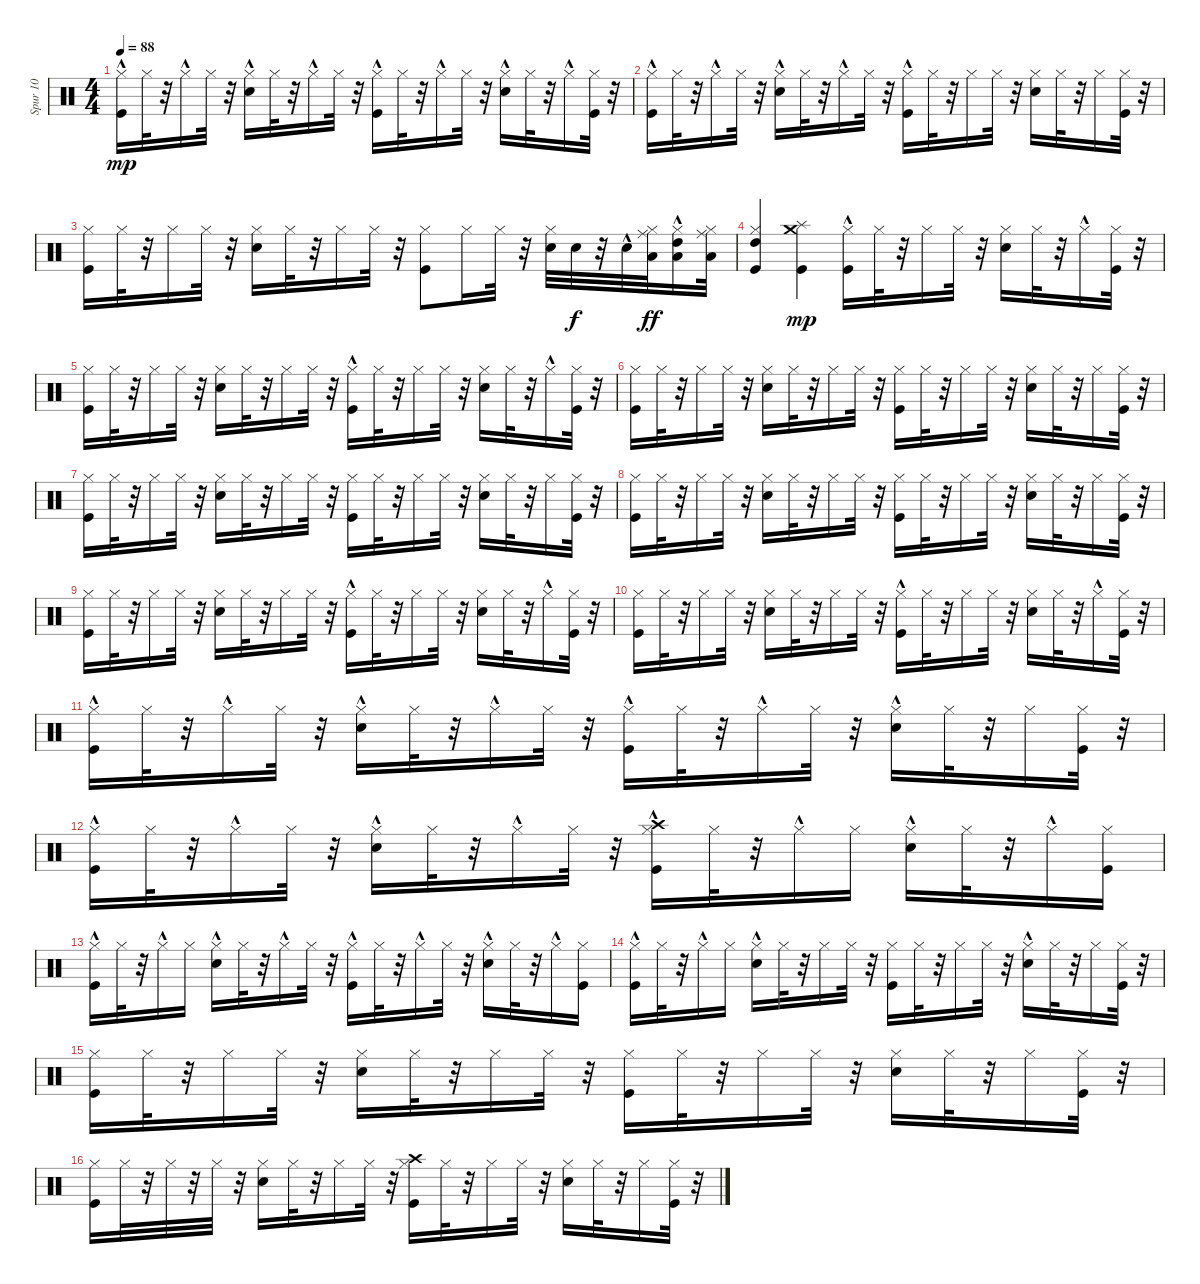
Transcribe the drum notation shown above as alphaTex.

\track ("Spur 10" "Spur 10") {instrument percussion}
\staff {score}
\articulation defaults
\ts (4 4)
\tempo 88
\clef neutral
\ks c
("Kick (hit)" "Hi-Hat (closed)"{hac}).16{dy mp} "Hi-Hat (closed)".32 r.32 "Hi-Hat (closed)"{hac}.16 "Hi-Hat (closed)".32 r.32 ("Snare (hit) 2" "Hi-Hat (closed)"{hac}).16 "Hi-Hat (closed)".32 r.32 "Hi-Hat (closed)"{hac}.16 "Hi-Hat (closed)".32 r.32 ("Kick (hit)"{hac} "Hi-Hat (closed)"{hac}).16 "Hi-Hat (closed)".32 r.32 "Hi-Hat (closed)"{hac}.16 "Hi-Hat (closed)".32 r.32 ("Snare (hit) 2" "Hi-Hat (closed)"{hac}).16 "Hi-Hat (closed)".32 r.32 "Hi-Hat (closed)"{hac}.16 ("Kick (hit)" "Hi-Hat (closed)").32 r.32 |
("Kick (hit)" "Hi-Hat (closed)"{hac}).16 "Hi-Hat (closed)".32 r.32 "Hi-Hat (closed)"{hac}.16 "Hi-Hat (closed)".32 r.32 ("Snare (hit) 2" "Hi-Hat (closed)"{hac}).16 "Hi-Hat (closed)".32 r.32 "Hi-Hat (closed)"{hac}.16 "Hi-Hat (closed)".32 r.32 ("Kick (hit)" "Hi-Hat (closed)"{hac}).16 "Hi-Hat (closed)".32 r.32 "Hi-Hat (closed)".16 "Hi-Hat (closed)".32 r.32 ("Snare (hit) 2" "Hi-Hat (closed)").16 "Hi-Hat (closed)".32 r.32 "Hi-Hat (closed)".16 ("Kick (hit)" "Hi-Hat (closed)").32 r.32 |
("Kick (hit)" "Hi-Hat (closed)").16 "Hi-Hat (closed)".32 r.32 "Hi-Hat (closed)".16 "Hi-Hat (closed)".32 r.32 ("Snare (hit) 2" "Hi-Hat (closed)").16 "Hi-Hat (closed)".32 r.32 "Hi-Hat (closed)".16 "Hi-Hat (closed)".32 r.32 ("Kick (hit)" "Hi-Hat (closed)").8 "Hi-Hat (closed)".16 "Hi-Hat (closed)".32 r.32 ("Snare (hit) 2" "Hi-Hat (closed)").32 "Snare (hit) 2".32{dy f} r.32 "Snare (hit) 2"{hac}.32 ("Hi-Hat (closed)" "Low Tom (hit)" "Ride (middle)").32{dy ff} ("Low Floor Tom (hit)" "Hi-Hat (closed)" "High Tom (hit)"{hac}).16 ("Low Floor Tom (hit)" "Hi-Hat (closed)" "Ride (middle)").32 |
("Kick (hit)" "Hi-Hat (closed)" "High Tom (hit)").4 ("Kick (hit)" "Splash (hit)" "Crash medium (hit)").4{dy mp} ("Kick (hit)"{hac} "Hi-Hat (closed)").16 "Hi-Hat (closed)".32 r.32 "Hi-Hat (closed)".16 "Hi-Hat (closed)".32 r.32 ("Snare (hit) 2" "Hi-Hat (closed)").16 "Hi-Hat (closed)".32 r.32 "Hi-Hat (closed)"{hac}.16 ("Kick (hit)" "Hi-Hat (closed)").32 r.32 |
("Kick (hit)" "Hi-Hat (closed)").16 "Hi-Hat (closed)".32 r.32 "Hi-Hat (closed)".16 "Hi-Hat (closed)".32 r.32 ("Snare (hit) 2" "Hi-Hat (closed)").16 "Hi-Hat (closed)".32 r.32 "Hi-Hat (closed)".16 "Hi-Hat (closed)".32 r.32 ("Kick (hit)"{hac} "Hi-Hat (closed)").16 "Hi-Hat (closed)".32 r.32 "Hi-Hat (closed)".16 "Hi-Hat (closed)".32 r.32 ("Snare (hit) 2" "Hi-Hat (closed)").16 "Hi-Hat (closed)".32 r.32 "Hi-Hat (closed)"{hac}.16 ("Kick (hit)" "Hi-Hat (closed)").32 r.32 |
("Kick (hit)" "Hi-Hat (closed)").16 "Hi-Hat (closed)".32 r.32 "Hi-Hat (closed)".16 "Hi-Hat (closed)".32 r.32 ("Snare (hit) 2" "Hi-Hat (closed)").16 "Hi-Hat (closed)".32 r.32 "Hi-Hat (closed)".16 "Hi-Hat (closed)".32 r.32 ("Kick (hit)" "Hi-Hat (closed)").16 "Hi-Hat (closed)".32 r.32 "Hi-Hat (closed)".16 "Hi-Hat (closed)".32 r.32 ("Snare (hit) 2" "Hi-Hat (closed)").16 "Hi-Hat (closed)".32 r.32 "Hi-Hat (closed)".16 ("Kick (hit)" "Hi-Hat (closed)").32 r.32 |
("Kick (hit)" "Hi-Hat (closed)").16 "Hi-Hat (closed)".32 r.32 "Hi-Hat (closed)".16 "Hi-Hat (closed)".32 r.32 ("Snare (hit) 2" "Hi-Hat (closed)").16 "Hi-Hat (closed)".32 r.32 "Hi-Hat (closed)".16 "Hi-Hat (closed)".32 r.32 ("Kick (hit)" "Hi-Hat (closed)").16 "Hi-Hat (closed)".32 r.32 "Hi-Hat (closed)".16 "Hi-Hat (closed)".32 r.32 ("Snare (hit) 2" "Hi-Hat (closed)").16 "Hi-Hat (closed)".32 r.32 "Hi-Hat (closed)".16 ("Kick (hit)" "Hi-Hat (closed)").32 r.32 |
("Kick (hit)" "Hi-Hat (closed)").16 "Hi-Hat (closed)".32 r.32 "Hi-Hat (closed)".16 "Hi-Hat (closed)".32 r.32 ("Snare (hit) 2" "Hi-Hat (closed)").16 "Hi-Hat (closed)".32 r.32 "Hi-Hat (closed)".16 "Hi-Hat (closed)".32 r.32 ("Kick (hit)" "Hi-Hat (closed)").16 "Hi-Hat (closed)".32 r.32 "Hi-Hat (closed)".16 "Hi-Hat (closed)".32 r.32 ("Snare (hit) 2" "Hi-Hat (closed)").16 "Hi-Hat (closed)".32 r.32 "Hi-Hat (closed)".16 ("Kick (hit)" "Hi-Hat (closed)").32 r.32 |
("Kick (hit)" "Hi-Hat (closed)").16 "Hi-Hat (closed)".32 r.32 "Hi-Hat (closed)".16 "Hi-Hat (closed)".32 r.32 ("Snare (hit) 2" "Hi-Hat (closed)").16 "Hi-Hat (closed)".32 r.32 "Hi-Hat (closed)".16 "Hi-Hat (closed)".32 r.32 ("Kick (hit)"{hac} "Hi-Hat (closed)").16 "Hi-Hat (closed)".32 r.32 "Hi-Hat (closed)".16 "Hi-Hat (closed)".32 r.32 ("Snare (hit) 2" "Hi-Hat (closed)").16 "Hi-Hat (closed)".32 r.32 "Hi-Hat (closed)"{hac}.16 ("Kick (hit)" "Hi-Hat (closed)").32 r.32 |
("Kick (hit)" "Hi-Hat (closed)").16 "Hi-Hat (closed)".32 r.32 "Hi-Hat (closed)".16 "Hi-Hat (closed)".32 r.32 ("Snare (hit) 2" "Hi-Hat (closed)").16 "Hi-Hat (closed)".32 r.32 "Hi-Hat (closed)".16 "Hi-Hat (closed)".32 r.32 ("Kick (hit)"{hac} "Hi-Hat (closed)").16 "Hi-Hat (closed)".32 r.32 "Hi-Hat (closed)".16 "Hi-Hat (closed)".32 r.32 ("Snare (hit) 2" "Hi-Hat (closed)").16 "Hi-Hat (closed)".32 r.32 "Hi-Hat (closed)"{hac}.16 ("Kick (hit)" "Hi-Hat (closed)").32 r.32 |
("Kick (hit)" "Hi-Hat (closed)"{hac}).16 "Hi-Hat (closed)".32 r.32 "Hi-Hat (closed)"{hac}.16 "Hi-Hat (closed)".32 r.32 ("Snare (hit) 2" "Hi-Hat (closed)"{hac}).16 "Hi-Hat (closed)".32 r.32 "Hi-Hat (closed)"{hac}.16 "Hi-Hat (closed)".32 r.32 ("Kick (hit)" "Hi-Hat (closed)"{hac}).16 "Hi-Hat (closed)".32 r.32 "Hi-Hat (closed)"{hac}.16 "Hi-Hat (closed)".32 r.32 ("Snare (hit) 2" "Hi-Hat (closed)"{hac}).16 "Hi-Hat (closed)".32 r.32 "Hi-Hat (closed)".16 ("Kick (hit)" "Hi-Hat (closed)").32 r.32 |
("Kick (hit)" "Hi-Hat (closed)"{hac}).16 "Hi-Hat (closed)".32 r.32 "Hi-Hat (closed)"{hac}.16 "Hi-Hat (closed)".32 r.32 ("Snare (hit) 2" "Hi-Hat (closed)"{hac}).16 "Hi-Hat (closed)".32 r.32 "Hi-Hat (closed)"{hac}.16 "Hi-Hat (closed)".32 r.32 ("Kick (hit)"{hac} "Hi-Hat (closed)"{hac} "Crash high (hit)").16 "Hi-Hat (closed)".32 r.32 "Hi-Hat (closed)"{hac}.16 "Hi-Hat (closed)".16 ("Snare (hit) 2" "Hi-Hat (closed)"{hac}).16 "Hi-Hat (closed)".32 r.32 "Hi-Hat (closed)"{hac}.16 ("Kick (hit)" "Hi-Hat (closed)").16 |
("Kick (hit)" "Hi-Hat (closed)"{hac}).16 "Hi-Hat (closed)".32 r.32 "Hi-Hat (closed)"{hac}.16 "Hi-Hat (closed)".16 ("Snare (hit) 2" "Hi-Hat (closed)"{hac}).16 "Hi-Hat (closed)".32 r.32 "Hi-Hat (closed)"{hac}.16 "Hi-Hat (closed)".32 r.32 ("Kick (hit)"{hac} "Hi-Hat (closed)"{hac}).16 "Hi-Hat (closed)".32 r.32 "Hi-Hat (closed)"{hac}.16 "Hi-Hat (closed)".32 r.32 ("Snare (hit) 2" "Hi-Hat (closed)"{hac}).16 "Hi-Hat (closed)".32 r.32 "Hi-Hat (closed)"{hac}.16 ("Kick (hit)" "Hi-Hat (closed)").16 |
("Kick (hit)" "Hi-Hat (closed)"{hac}).16 "Hi-Hat (closed)".32 r.32 "Hi-Hat (closed)"{hac}.16 "Hi-Hat (closed)".16 ("Snare (hit) 2" "Hi-Hat (closed)"{hac}).16 "Hi-Hat (closed)".32 r.32 "Hi-Hat (closed)".16 "Hi-Hat (closed)".32 r.32 ("Kick (hit)" "Hi-Hat (closed)").16 "Hi-Hat (closed)".32 r.32 "Hi-Hat (closed)".16 "Hi-Hat (closed)".32 r.32 ("Snare (hit) 2" "Hi-Hat (closed)"{hac}).16 "Hi-Hat (closed)".32 r.32 "Hi-Hat (closed)".16 ("Kick (hit)" "Hi-Hat (closed)").32 r.32 |
("Kick (hit)" "Hi-Hat (closed)").16 "Hi-Hat (closed)".32 r.32 "Hi-Hat (closed)".16 "Hi-Hat (closed)".32 r.32 ("Snare (hit) 2" "Hi-Hat (closed)").16 "Hi-Hat (closed)".32 r.32 "Hi-Hat (closed)".16 "Hi-Hat (closed)".32 r.32 ("Kick (hit)" "Hi-Hat (closed)").16 "Hi-Hat (closed)".32 r.32 "Hi-Hat (closed)".16 "Hi-Hat (closed)".32 r.32 ("Snare (hit) 2" "Hi-Hat (closed)").16 "Hi-Hat (closed)".32 r.32 "Hi-Hat (closed)".16 ("Kick (hit)" "Hi-Hat (closed)").32 r.32 |
("Kick (hit)" "Hi-Hat (closed)").16 "Hi-Hat (closed)".32 r.32 "Hi-Hat (closed)".32 r.32 "Hi-Hat (closed)".32 r.32 ("Snare (hit) 2" "Hi-Hat (closed)").16 "Hi-Hat (closed)".32 r.32 "Hi-Hat (closed)".16 "Hi-Hat (closed)".32 r.32 ("Kick (hit)" "Hi-Hat (closed)" "Crash high (hit)").16 "Hi-Hat (closed)".32 r.32 "Hi-Hat (closed)".16 "Hi-Hat (closed)".32 r.32 ("Snare (hit) 2" "Hi-Hat (closed)").16 "Hi-Hat (closed)".32 r.32 "Hi-Hat (closed)".16 ("Kick (hit)" "Hi-Hat (closed)").32 r.32
